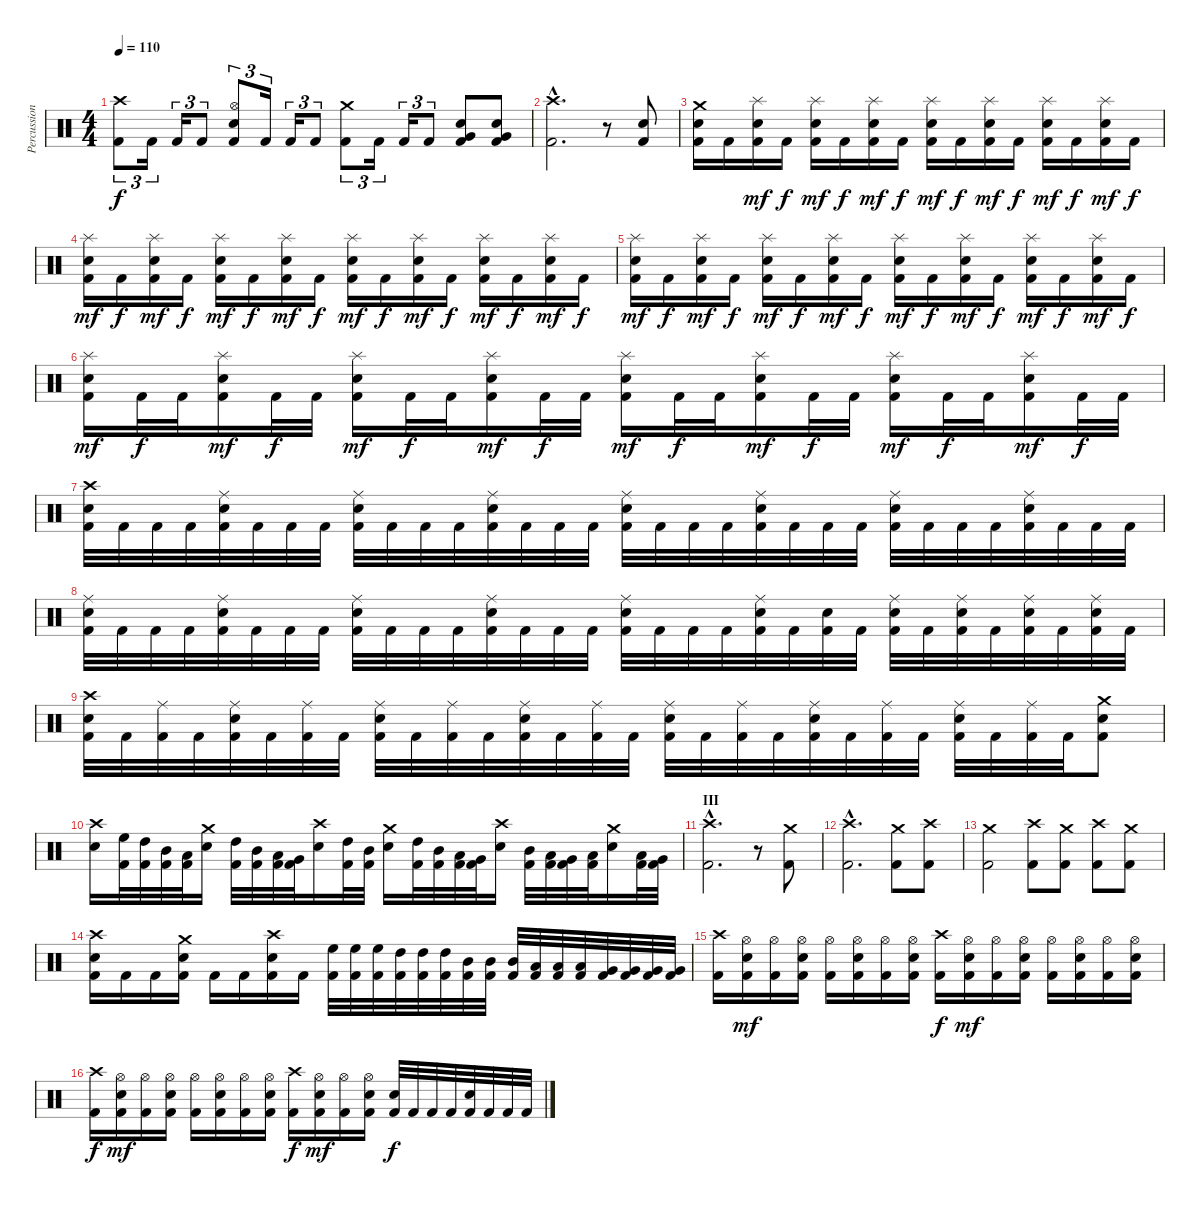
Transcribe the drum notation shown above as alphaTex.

\track ("Percussion" "Percussion") {instrument percussion}
\staff {score}
\articulation defaults
\ts (4 4)
\tempo 110
\clef neutral
\ks c
("Crash high (hit)" "Kick (hit) 2").8{tu (3 2) dy f} "Kick (hit) 2".16{tu (3 2)} "Kick (hit) 2".16{tu (3 2)} "Kick (hit) 2".8{tu (3 2)} ("Hi-Hat (open)" "Snare (hit) 2" "Kick (hit) 2").8{tu (3 2)} "Kick (hit) 2".16{tu (3 2)} "Kick (hit) 2".16{tu (3 2)} "Kick (hit) 2".8{tu (3 2)} ("Crash medium (hit)" "Kick (hit) 2").8{tu (3 2)} "Kick (hit) 2".16{tu (3 2)} "Kick (hit) 2".16{tu (3 2)} "Kick (hit) 2".8{tu (3 2)} ("Very Low Tom (hit)" "Snare (hit) 2" "Kick (hit) 2").8 ("Very Low Tom (hit)" "Snare (hit) 2" "Kick (hit) 2").8 |
\section ("" "")
("Crash high (hit)"{hac} "Kick (hit) 2"{hac}).2{d} r.8 ("Snare (hit) 2" "Kick (hit) 2").8 |
("Crash medium (hit)" "Snare (hit) 2" "Kick (hit) 2").16 "Kick (hit) 2".16 ("Splash (hit)" "Snare (hit) 2" "Kick (hit) 2").16{dy mf} "Kick (hit) 2".16{dy f} ("Splash (hit)" "Snare (hit) 2" "Kick (hit) 2").16{dy mf} "Kick (hit) 2".16{dy f} ("Splash (hit)" "Snare (hit) 2" "Kick (hit) 2").16{dy mf} "Kick (hit) 2".16{dy f} ("Splash (hit)" "Snare (hit) 2" "Kick (hit) 2").16{dy mf} "Kick (hit) 2".16{dy f} ("Splash (hit)" "Snare (hit) 2" "Kick (hit) 2").16{dy mf} "Kick (hit) 2".16{dy f} ("Splash (hit)" "Snare (hit) 2" "Kick (hit) 2").16{dy mf} "Kick (hit) 2".16{dy f} ("Splash (hit)" "Snare (hit) 2" "Kick (hit) 2").16{dy mf} "Kick (hit) 2".16{dy f} |
("Splash (hit)" "Snare (hit) 2" "Kick (hit) 2").16{dy mf} "Kick (hit) 2".16{dy f} ("Splash (hit)" "Snare (hit) 2" "Kick (hit) 2").16{dy mf} "Kick (hit) 2".16{dy f} ("Splash (hit)" "Snare (hit) 2" "Kick (hit) 2").16{dy mf} "Kick (hit) 2".16{dy f} ("Splash (hit)" "Snare (hit) 2" "Kick (hit) 2").16{dy mf} "Kick (hit) 2".16{dy f} ("Splash (hit)" "Snare (hit) 2" "Kick (hit) 2").16{dy mf} "Kick (hit) 2".16{dy f} ("Splash (hit)" "Snare (hit) 2" "Kick (hit) 2").16{dy mf} "Kick (hit) 2".16{dy f} ("Splash (hit)" "Snare (hit) 2" "Kick (hit) 2").16{dy mf} "Kick (hit) 2".16{dy f} ("Splash (hit)" "Snare (hit) 2" "Kick (hit) 2").16{dy mf} "Kick (hit) 2".16{dy f} |
("Splash (hit)" "Snare (hit) 2" "Kick (hit) 2").16{dy mf} "Kick (hit) 2".16{dy f} ("Splash (hit)" "Snare (hit) 2" "Kick (hit) 2").16{dy mf} "Kick (hit) 2".16{dy f} ("Splash (hit)" "Snare (hit) 2" "Kick (hit) 2").16{dy mf} "Kick (hit) 2".16{dy f} ("Splash (hit)" "Snare (hit) 2" "Kick (hit) 2").16{dy mf} "Kick (hit) 2".16{dy f} ("Splash (hit)" "Snare (hit) 2" "Kick (hit) 2").16{dy mf} "Kick (hit) 2".16{dy f} ("Splash (hit)" "Snare (hit) 2" "Kick (hit) 2").16{dy mf} "Kick (hit) 2".16{dy f} ("Splash (hit)" "Snare (hit) 2" "Kick (hit) 2").16{dy mf} "Kick (hit) 2".16{dy f} ("Splash (hit)" "Snare (hit) 2" "Kick (hit) 2").16{dy mf} "Kick (hit) 2".16{dy f} |
("Splash (hit)" "Snare (hit) 2" "Kick (hit) 2").16{dy mf} "Kick (hit) 2".32{dy f} "Kick (hit) 2".32 ("Splash (hit)" "Snare (hit) 2" "Kick (hit) 2").16{dy mf} "Kick (hit) 2".32{dy f} "Kick (hit) 2".32 ("Splash (hit)" "Snare (hit) 2" "Kick (hit) 2").16{dy mf} "Kick (hit) 2".32{dy f} "Kick (hit) 2".32 ("Splash (hit)" "Snare (hit) 2" "Kick (hit) 2").16{dy mf} "Kick (hit) 2".32{dy f} "Kick (hit) 2".32 ("Splash (hit)" "Snare (hit) 2" "Kick (hit) 2").16{dy mf} "Kick (hit) 2".32{dy f} "Kick (hit) 2".32 ("Splash (hit)" "Snare (hit) 2" "Kick (hit) 2").16{dy mf} "Kick (hit) 2".32{dy f} "Kick (hit) 2".32 ("Splash (hit)" "Snare (hit) 2" "Kick (hit) 2").16{dy mf} "Kick (hit) 2".32{dy f} "Kick (hit) 2".32 ("Splash (hit)" "Snare (hit) 2" "Kick (hit) 2").16{dy mf} "Kick (hit) 2".32{dy f} "Kick (hit) 2".32 |
("Crash high (hit)" "Snare (hit) 2" "Kick (hit) 2").32 "Kick (hit) 2".32 "Kick (hit) 2".32 "Kick (hit) 2".32 ("Ride (middle)" "Snare (hit) 2" "Kick (hit) 2").32 "Kick (hit) 2".32 "Kick (hit) 2".32 "Kick (hit) 2".32 ("Ride (middle)" "Snare (hit) 2" "Kick (hit) 2").32 "Kick (hit) 2".32 "Kick (hit) 2".32 "Kick (hit) 2".32 ("Ride (middle)" "Snare (hit) 2" "Kick (hit) 2").32 "Kick (hit) 2".32 "Kick (hit) 2".32 "Kick (hit) 2".32 ("Ride (middle)" "Snare (hit) 2" "Kick (hit) 2").32 "Kick (hit) 2".32 "Kick (hit) 2".32 "Kick (hit) 2".32 ("Ride (middle)" "Snare (hit) 2" "Kick (hit) 2").32 "Kick (hit) 2".32 "Kick (hit) 2".32 "Kick (hit) 2".32 ("Ride (middle)" "Snare (hit) 2" "Kick (hit) 2").32 "Kick (hit) 2".32 "Kick (hit) 2".32 "Kick (hit) 2".32 ("Ride (middle)" "Snare (hit) 2" "Kick (hit) 2").32 "Kick (hit) 2".32 "Kick (hit) 2".32 "Kick (hit) 2".32 |
("Ride (middle)" "Snare (hit) 2" "Kick (hit) 2").32 "Kick (hit) 2".32 "Kick (hit) 2".32 "Kick (hit) 2".32 ("Ride (middle)" "Snare (hit) 2" "Kick (hit) 2").32 "Kick (hit) 2".32 "Kick (hit) 2".32 "Kick (hit) 2".32 ("Ride (middle)" "Snare (hit) 2" "Kick (hit) 2").32 "Kick (hit) 2".32 "Kick (hit) 2".32 "Kick (hit) 2".32 ("Ride (middle)" "Snare (hit) 2" "Kick (hit) 2").32 "Kick (hit) 2".32 "Kick (hit) 2".32 "Kick (hit) 2".32 ("Ride (middle)" "Snare (hit) 2" "Kick (hit) 2").32 "Kick (hit) 2".32 "Kick (hit) 2".32 "Kick (hit) 2".32 ("Ride (middle)" "Snare (hit) 2" "Kick (hit) 2").32 "Kick (hit) 2".32 ("Snare (hit) 2" "Kick (hit) 2").32 "Kick (hit) 2".32 ("Ride (middle)" "Snare (hit) 2" "Kick (hit) 2").32 "Kick (hit) 2".32 ("Ride (middle)" "Snare (hit) 2" "Kick (hit) 2").32 "Kick (hit) 2".32 ("Ride (middle)" "Snare (hit) 2" "Kick (hit) 2").32 "Kick (hit) 2".32 ("Ride (middle)" "Snare (hit) 2" "Kick (hit) 2").32 "Kick (hit) 2".32 |
("Crash high (hit)" "Snare (hit) 2" "Kick (hit) 2").32 "Kick (hit) 2".32 ("Ride (middle)" "Kick (hit) 2").32 "Kick (hit) 2".32 ("Ride (middle)" "Snare (hit) 2" "Kick (hit) 2").32 "Kick (hit) 2".32 ("Ride (middle)" "Kick (hit) 2").32 "Kick (hit) 2".32 ("Ride (middle)" "Snare (hit) 2" "Kick (hit) 2").32 "Kick (hit) 2".32 ("Ride (middle)" "Kick (hit) 2").32 "Kick (hit) 2".32 ("Ride (middle)" "Snare (hit) 2" "Kick (hit) 2").32 "Kick (hit) 2".32 ("Ride (middle)" "Kick (hit) 2").32 "Kick (hit) 2".32 ("Ride (middle)" "Snare (hit) 2" "Kick (hit) 2").32 "Kick (hit) 2".32 ("Ride (middle)" "Kick (hit) 2").32 "Kick (hit) 2".32 ("Ride (middle)" "Snare (hit) 2" "Kick (hit) 2").32 "Kick (hit) 2".32 ("Ride (middle)" "Kick (hit) 2").32 "Kick (hit) 2".32 ("Ride (middle)" "Snare (hit) 2" "Kick (hit) 2").32 "Kick (hit) 2".32 ("Ride (middle)" "Kick (hit) 2").32 "Kick (hit) 2".32 ("Crash medium (hit)" "Snare (hit) 2" "Kick (hit) 2").8 |
("Crash high (hit)" "Snare (hit) 2").16 ("High Floor Tom (hit)" "Kick (hit) 2").32 ("High Tom (hit)" "Kick (hit) 2").32 ("Mid Tom (hit)" "Kick (hit) 2").32 ("Low Tom (hit)" "Kick (hit) 2").32 ("Crash medium (hit)" "Snare (hit) 2").16 ("High Tom (hit)" "Kick (hit) 2").32 ("Mid Tom (hit)" "Kick (hit) 2").32 ("Low Tom (hit)" "Kick (hit) 2").32 ("Very Low Tom (hit)" "Kick (hit) 2").32 ("Crash high (hit)" "Snare (hit) 2").16 ("High Tom (hit)" "Kick (hit) 2").32 ("Mid Tom (hit)" "Kick (hit) 2").32 ("Crash medium (hit)" "Snare (hit) 2").16 ("High Tom (hit)" "Kick (hit) 2").32 ("Mid Tom (hit)" "Kick (hit) 2").32 ("Low Tom (hit)" "Kick (hit) 2").32 ("Very Low Tom (hit)" "Kick (hit) 2").32 ("Crash high (hit)" "Snare (hit) 2").16 ("Mid Tom (hit)" "Kick (hit) 2").32 ("Low Tom (hit)" "Kick (hit) 2").32 ("Very Low Tom (hit)" "Kick (hit) 2").32 ("Low Floor Tom (hit)" "Kick (hit) 2").32 ("Crash medium (hit)" "Snare (hit) 2").16 ("Low Tom (hit)" "Kick (hit) 2").32 ("Very Low Tom (hit)" "Kick (hit) 2").32 |
\section ("" "III")
("Crash high (hit)"{hac} "Kick (hit) 2"{hac}).2{d} r.8 ("Crash medium (hit)" "Kick (hit) 2").8 |
("Crash high (hit)"{hac} "Kick (hit) 2"{hac}).2{d} ("Crash medium (hit)" "Kick (hit) 2").8 ("Crash high (hit)" "Kick (hit) 2").8 |
("Crash medium (hit)" "Kick (hit) 2").2 ("Crash high (hit)" "Kick (hit) 2").8 ("Crash medium (hit)" "Kick (hit) 2").8 ("Crash high (hit)" "Kick (hit) 2").8 ("Crash medium (hit)" "Kick (hit) 2").8 |
("Crash high (hit)" "Snare (hit) 2" "Kick (hit) 2").16 "Kick (hit) 2".16 "Kick (hit) 2".16 ("Crash medium (hit)" "Snare (hit) 2" "Kick (hit) 2").16 "Kick (hit) 2".16 "Kick (hit) 2".16 ("Crash high (hit)" "Snare (hit) 2" "Kick (hit) 2").16 "Kick (hit) 2".16 ("High Floor Tom (hit)" "Kick (hit) 2").32 ("High Floor Tom (hit)" "Kick (hit) 2").32 ("High Floor Tom (hit)" "Kick (hit) 2").32 ("High Tom (hit)" "Kick (hit) 2").32 ("High Tom (hit)" "Kick (hit) 2").32 ("High Tom (hit)" "Kick (hit) 2").32 ("Mid Tom (hit)" "Kick (hit) 2").32 ("Mid Tom (hit)" "Kick (hit) 2").32 ("Mid Tom (hit)" "Kick (hit) 2").32 ("Low Tom (hit)" "Kick (hit) 2").32 ("Low Tom (hit)" "Kick (hit) 2").32 ("Low Tom (hit)" "Kick (hit) 2").32 ("Very Low Tom (hit)" "Kick (hit) 2").32 ("Very Low Tom (hit)" "Kick (hit) 2").32 ("Very Low Tom (hit)" "Kick (hit) 2").32 ("Very Low Tom (hit)" "Kick (hit) 2").32 |
\section ("" "")
("Crash high (hit)" "Kick (hit) 2").16 ("Hi-Hat (open)" "Snare (hit) 2" "Kick (hit) 2").16{dy mf} ("Hi-Hat (open)" "Kick (hit) 2").16 ("Hi-Hat (open)" "Snare (hit) 2" "Kick (hit) 2").16 ("Hi-Hat (open)" "Kick (hit) 2").16 ("Hi-Hat (open)" "Snare (hit) 2" "Kick (hit) 2").16 ("Hi-Hat (open)" "Kick (hit) 2").16 ("Hi-Hat (open)" "Snare (hit) 2" "Kick (hit) 2").16 ("Crash high (hit)" "Kick (hit) 2").16{dy f} ("Hi-Hat (open)" "Snare (hit) 2" "Kick (hit) 2").16{dy mf} ("Hi-Hat (open)" "Kick (hit) 2").16 ("Hi-Hat (open)" "Snare (hit) 2" "Kick (hit) 2").16 ("Hi-Hat (open)" "Kick (hit) 2").16 ("Hi-Hat (open)" "Snare (hit) 2" "Kick (hit) 2").16 ("Hi-Hat (open)" "Kick (hit) 2").16 ("Hi-Hat (open)" "Snare (hit) 2" "Kick (hit) 2").16 |
("Crash high (hit)" "Kick (hit) 2").16{dy f} ("Hi-Hat (open)" "Snare (hit) 2" "Kick (hit) 2").16{dy mf} ("Hi-Hat (open)" "Kick (hit) 2").16 ("Hi-Hat (open)" "Snare (hit) 2" "Kick (hit) 2").16 ("Hi-Hat (open)" "Kick (hit) 2").16 ("Hi-Hat (open)" "Snare (hit) 2" "Kick (hit) 2").16 ("Hi-Hat (open)" "Kick (hit) 2").16 ("Hi-Hat (open)" "Snare (hit) 2" "Kick (hit) 2").16 ("Crash high (hit)" "Kick (hit) 2").16{dy f} ("Hi-Hat (open)" "Snare (hit) 2" "Kick (hit) 2").16{dy mf} ("Hi-Hat (open)" "Kick (hit) 2").16 ("Hi-Hat (open)" "Snare (hit) 2" "Kick (hit) 2").16 ("Snare (hit) 2" "Kick (hit) 2").32{dy f} "Kick (hit) 2".32 "Kick (hit) 2".32 "Kick (hit) 2".32 ("Snare (hit) 2" "Kick (hit) 2").32 "Kick (hit) 2".32 "Kick (hit) 2".32 "Kick (hit) 2".32
